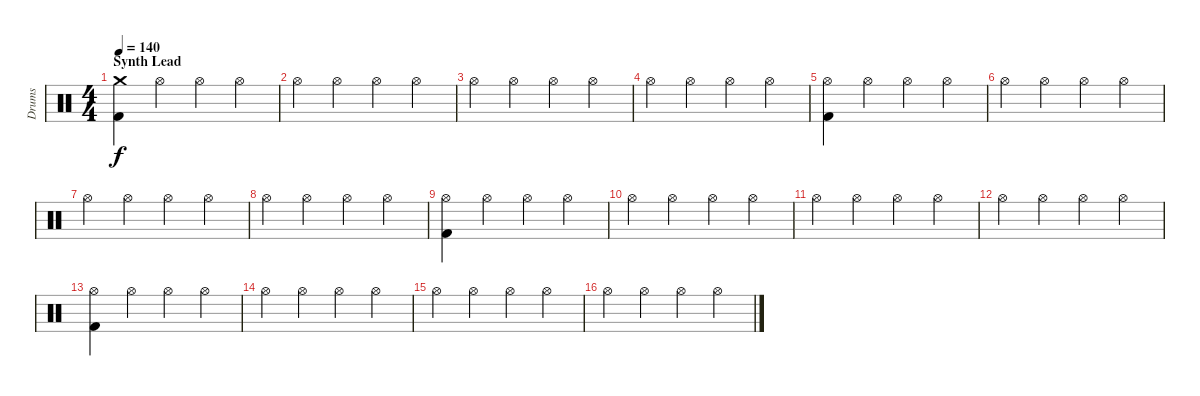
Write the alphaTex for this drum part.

\track ("Drums" "Drums") {instrument percussion}
\staff {score}
\articulation defaults
\ts (4 4)
\section ("" "Synth Lead")
\tempo 140
\clef neutral
\ks c
("Crash medium (hit)" "Kick (hit) 2").4{dy f} "Hi-Hat (open)".4 "Hi-Hat (open)".4 "Hi-Hat (open)".4 |
"Hi-Hat (open)".4 "Hi-Hat (open)".4 "Hi-Hat (open)".4 "Hi-Hat (open)".4 |
"Hi-Hat (open)".4 "Hi-Hat (open)".4 "Hi-Hat (open)".4 "Hi-Hat (open)".4 |
"Hi-Hat (open)".4 "Hi-Hat (open)".4 "Hi-Hat (open)".4 "Hi-Hat (open)".4 |
("Hi-Hat (open)" "Kick (hit) 2").4 "Hi-Hat (open)".4 "Hi-Hat (open)".4 "Hi-Hat (open)".4 |
"Hi-Hat (open)".4 "Hi-Hat (open)".4 "Hi-Hat (open)".4 "Hi-Hat (open)".4 |
"Hi-Hat (open)".4 "Hi-Hat (open)".4 "Hi-Hat (open)".4 "Hi-Hat (open)".4 |
"Hi-Hat (open)".4 "Hi-Hat (open)".4 "Hi-Hat (open)".4 "Hi-Hat (open)".4 |
("Hi-Hat (open)" "Kick (hit) 2").4 "Hi-Hat (open)".4 "Hi-Hat (open)".4 "Hi-Hat (open)".4 |
"Hi-Hat (open)".4 "Hi-Hat (open)".4 "Hi-Hat (open)".4 "Hi-Hat (open)".4 |
"Hi-Hat (open)".4 "Hi-Hat (open)".4 "Hi-Hat (open)".4 "Hi-Hat (open)".4 |
"Hi-Hat (open)".4 "Hi-Hat (open)".4 "Hi-Hat (open)".4 "Hi-Hat (open)".4 |
("Hi-Hat (open)" "Kick (hit) 2").4 "Hi-Hat (open)".4 "Hi-Hat (open)".4 "Hi-Hat (open)".4 |
"Hi-Hat (open)".4 "Hi-Hat (open)".4 "Hi-Hat (open)".4 "Hi-Hat (open)".4 |
"Hi-Hat (open)".4 "Hi-Hat (open)".4 "Hi-Hat (open)".4 "Hi-Hat (open)".4 |
"Hi-Hat (open)".4 "Hi-Hat (open)".4 "Hi-Hat (open)".4 "Hi-Hat (open)".4
